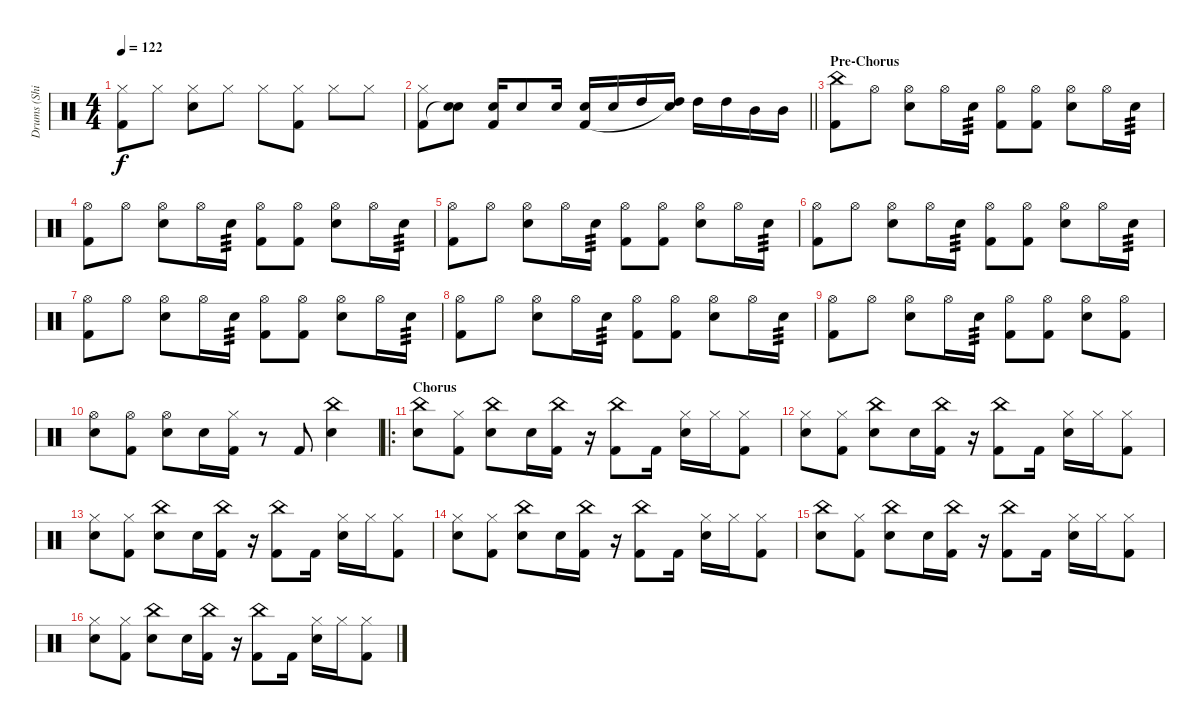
\track ("Drums (Shinya)" "Drums (Shi") {instrument percussion}
\staff {score}
\articulation defaults
\ts (4 4)
\tempo 122
\clef neutral
\ks c
("Hi-Hat (closed)" "Kick (hit) 2").8{dy f} "Hi-Hat (closed)".8 ("Snare (hit) 2" "Hi-Hat (closed)").8 "Hi-Hat (closed)".8 "Hi-Hat (closed)".8 ("Hi-Hat (closed)" "Kick (hit) 2").8 "Hi-Hat (closed)".8 "Hi-Hat (closed)".8 |
\barLineRight lightlight
("Hi-Hat (closed)" "Kick (hit) 2").8 ("Snare (hit) 2" "Snare (hit)"{t}).8 ("Snare (hit) 2" "Kick (hit) 2").16 "Snare (hit) 2".8 "Snare (hit) 2".16 ("Snare (hit) 2" "Kick (hit) 2").16 "Snare (hit) 2".16 "High Tom (hit)".16 ("High Tom (hit)" "Snare (hit)"{t}).16 "High Tom (hit)".16 "High Tom (hit)".16 "Mid Tom (hit)".16 "Mid Tom (hit)".16 |
\section ("" "Pre-Chorus")
("China (hit)" "Kick (hit) 2").8 "Hi-Hat (open)".8 ("Snare (hit) 2" "Hi-Hat (open)").8 "Hi-Hat (open)".16 "Snare (hit) 2".16{tp 3} ("Hi-Hat (open)" "Kick (hit) 2").8 ("Hi-Hat (open)" "Kick (hit) 2").8 ("Snare (hit) 2" "Hi-Hat (open)").8 "Hi-Hat (open)".16 "Snare (hit) 2".16{tp 3} |
("Hi-Hat (open)" "Kick (hit) 2").8 "Hi-Hat (open)".8 ("Snare (hit) 2" "Hi-Hat (open)").8 "Hi-Hat (open)".16 "Snare (hit) 2".16{tp 3} ("Hi-Hat (open)" "Kick (hit) 2").8 ("Hi-Hat (open)" "Kick (hit) 2").8 ("Snare (hit) 2" "Hi-Hat (open)").8 "Hi-Hat (open)".16 "Snare (hit) 2".16{tp 3} |
("Hi-Hat (open)" "Kick (hit) 2").8 "Hi-Hat (open)".8 ("Snare (hit) 2" "Hi-Hat (open)").8 "Hi-Hat (open)".16 "Snare (hit) 2".16{tp 3} ("Hi-Hat (open)" "Kick (hit) 2").8 ("Hi-Hat (open)" "Kick (hit) 2").8 ("Snare (hit) 2" "Hi-Hat (open)").8 "Hi-Hat (open)".16 "Snare (hit) 2".16{tp 3} |
("Hi-Hat (open)" "Kick (hit) 2").8 "Hi-Hat (open)".8 ("Snare (hit) 2" "Hi-Hat (open)").8 "Hi-Hat (open)".16 "Snare (hit) 2".16{tp 3} ("Hi-Hat (open)" "Kick (hit) 2").8 ("Hi-Hat (open)" "Kick (hit) 2").8 ("Snare (hit) 2" "Hi-Hat (open)").8 "Hi-Hat (open)".16 "Snare (hit) 2".16{tp 3} |
("Hi-Hat (open)" "Kick (hit) 2").8 "Hi-Hat (open)".8 ("Snare (hit) 2" "Hi-Hat (open)").8 "Hi-Hat (open)".16 "Snare (hit) 2".16{tp 3} ("Hi-Hat (open)" "Kick (hit) 2").8 ("Hi-Hat (open)" "Kick (hit) 2").8 ("Snare (hit) 2" "Hi-Hat (open)").8 "Hi-Hat (open)".16 "Snare (hit) 2".16{tp 3} |
("Hi-Hat (open)" "Kick (hit) 2").8 "Hi-Hat (open)".8 ("Snare (hit) 2" "Hi-Hat (open)").8 "Hi-Hat (open)".16 "Snare (hit) 2".16{tp 3} ("Hi-Hat (open)" "Kick (hit) 2").8 ("Hi-Hat (open)" "Kick (hit) 2").8 ("Snare (hit) 2" "Hi-Hat (open)").8 "Hi-Hat (open)".16 "Snare (hit) 2".16{tp 3} |
("Hi-Hat (open)" "Kick (hit) 2").8 "Hi-Hat (open)".8 ("Snare (hit) 2" "Hi-Hat (open)").8 "Hi-Hat (open)".16 "Snare (hit) 2".16{tp 3} ("Hi-Hat (open)" "Kick (hit) 2").8 ("Hi-Hat (open)" "Kick (hit) 2").8 ("Snare (hit) 2" "Hi-Hat (open)").8 ("Hi-Hat (open)" "Kick (hit) 2").8 |
("Snare (hit) 2" "Hi-Hat (open)").8 ("Hi-Hat (open)" "Kick (hit) 2").8 ("Snare (hit) 2" "Hi-Hat (open)").8 "Snare (hit) 2".16 ("Hi-Hat (closed)" "Kick (hit) 2").16 r.8 "Kick (hit) 2".8 ("Snare (hit) 2" "China (hit)").4 |
\ro
\section ("" "Chorus")
("Snare (hit) 2" "China (hit)").8 ("Hi-Hat (closed)" "Kick (hit) 2").8 ("Snare (hit) 2" "China (hit)").8 "Snare (hit) 2".16 ("China (hit)" "Kick (hit) 2").16 r.16 ("China (hit)" "Kick (hit) 2").8 "Kick (hit) 2".16 ("Snare (hit) 2" "Hi-Hat (closed)").16 "Hi-Hat (closed)".16 ("Hi-Hat (closed)" "Kick (hit) 2").8 |
("Snare (hit) 2" "Hi-Hat (closed)").8 ("Hi-Hat (closed)" "Kick (hit) 2").8 ("Snare (hit) 2" "China (hit)").8 "Snare (hit) 2".16 ("China (hit)" "Kick (hit) 2").16 r.16 ("China (hit)" "Kick (hit) 2").8 "Kick (hit) 2".16 ("Snare (hit) 2" "Hi-Hat (closed)").16 "Hi-Hat (closed)".16 ("Hi-Hat (closed)" "Kick (hit) 2").8 |
("Snare (hit) 2" "Hi-Hat (closed)").8 ("Hi-Hat (closed)" "Kick (hit) 2").8 ("Snare (hit) 2" "China (hit)").8 "Snare (hit) 2".16 ("China (hit)" "Kick (hit) 2").16 r.16 ("China (hit)" "Kick (hit) 2").8 "Kick (hit) 2".16 ("Snare (hit) 2" "Hi-Hat (closed)").16 "Hi-Hat (closed)".16 ("Hi-Hat (closed)" "Kick (hit) 2").8 |
("Snare (hit) 2" "Hi-Hat (closed)").8 ("Hi-Hat (closed)" "Kick (hit) 2").8 ("Snare (hit) 2" "China (hit)").8 "Snare (hit) 2".16 ("China (hit)" "Kick (hit) 2").16 r.16 ("China (hit)" "Kick (hit) 2").8 "Kick (hit) 2".16 ("Snare (hit) 2" "Hi-Hat (closed)").16 "Hi-Hat (closed)".16 ("Hi-Hat (closed)" "Kick (hit) 2").8 |
("Snare (hit) 2" "China (hit)").8 ("Hi-Hat (closed)" "Kick (hit) 2").8 ("Snare (hit) 2" "China (hit)").8 "Snare (hit) 2".16 ("China (hit)" "Kick (hit) 2").16 r.16 ("China (hit)" "Kick (hit) 2").8 "Kick (hit) 2".16 ("Snare (hit) 2" "Hi-Hat (closed)").16 "Hi-Hat (closed)".16 ("Hi-Hat (closed)" "Kick (hit) 2").8 |
("Snare (hit) 2" "Hi-Hat (closed)").8 ("Hi-Hat (closed)" "Kick (hit) 2").8 ("Snare (hit) 2" "China (hit)").8 "Snare (hit) 2".16 ("China (hit)" "Kick (hit) 2").16 r.16 ("China (hit)" "Kick (hit) 2").8 "Kick (hit) 2".16 ("Snare (hit) 2" "Hi-Hat (closed)").16 "Hi-Hat (closed)".16 ("Hi-Hat (closed)" "Kick (hit) 2").8
